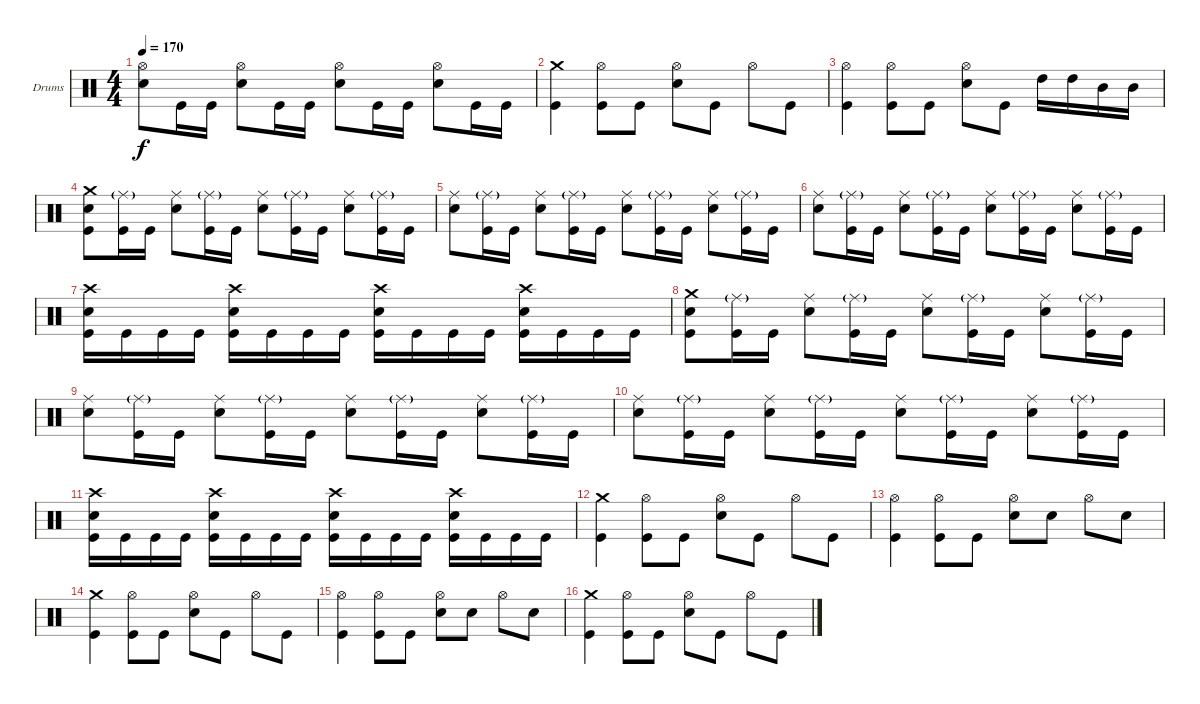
\bracketExtendMode groupsimilarinstruments
\firstSystemTrackNameOrientation horizontal
\otherSystemsTrackNameOrientation horizontal
\track ("Дмитрий Кривенков" "Drums") {instrument percussion}
\staff {score}
\articulation defaults
\ts (4 4)
\tempo 170
\clef neutral
\ks c
("Hi-Hat (open)" "Snare (hit) 2").8{dy f} "Kick (hit)".16 "Kick (hit)".16 ("Hi-Hat (open)" "Snare (hit) 2").8 "Kick (hit)".16 "Kick (hit)".16 ("Hi-Hat (open)" "Snare (hit) 2").8 "Kick (hit)".16 "Kick (hit)".16 ("Hi-Hat (open)" "Snare (hit) 2").8 "Kick (hit)".16 "Kick (hit)".16 |
("Crash medium (hit)" "Kick (hit)").4 ("Hi-Hat (open)" "Kick (hit)").8 "Kick (hit)".8 ("Hi-Hat (open)" "Snare (hit) 2").8 "Kick (hit)".8 "Hi-Hat (open)".8 "Kick (hit)".8 |
("Hi-Hat (open)" "Kick (hit)").4 ("Hi-Hat (open)" "Kick (hit)").8 "Kick (hit)".8 ("Hi-Hat (open)" "Snare (hit) 2").8 "Kick (hit)".8 "High Tom (hit)".16 "High Tom (hit)".16 "Mid Tom (hit)".16 "Mid Tom (hit)".16 |
("Crash medium (hit)" "Snare (hit) 2" "Kick (hit)").8 ("Ride (middle)"{g} "Kick (hit)").16 "Kick (hit)".16 ("Ride (middle)" "Snare (hit) 2").8 ("Ride (middle)"{g} "Kick (hit)").16 "Kick (hit)".16 ("Ride (middle)" "Snare (hit) 2").8 ("Ride (middle)"{g} "Kick (hit)").16 "Kick (hit)".16 ("Ride (middle)" "Snare (hit) 2").8 ("Ride (middle)"{g} "Kick (hit)").16 "Kick (hit)".16 |
("Ride (middle)" "Snare (hit) 2").8 ("Ride (middle)"{g} "Kick (hit)").16 "Kick (hit)".16 ("Ride (middle)" "Snare (hit) 2").8 ("Ride (middle)"{g} "Kick (hit)").16 "Kick (hit)".16 ("Ride (middle)" "Snare (hit) 2").8 ("Ride (middle)"{g} "Kick (hit)").16 "Kick (hit)".16 ("Ride (middle)" "Snare (hit) 2").8 ("Ride (middle)"{g} "Kick (hit)").16 "Kick (hit)".16 |
("Ride (middle)" "Snare (hit) 2").8 ("Ride (middle)"{g} "Kick (hit)").16 "Kick (hit)".16 ("Ride (middle)" "Snare (hit) 2").8 ("Ride (middle)"{g} "Kick (hit)").16 "Kick (hit)".16 ("Ride (middle)" "Snare (hit) 2").8 ("Ride (middle)"{g} "Kick (hit)").16 "Kick (hit)".16 ("Ride (middle)" "Snare (hit) 2").8 ("Ride (middle)"{g} "Kick (hit)").16 "Kick (hit)".16 |
("Crash high (hit)" "Snare (hit) 2" "Kick (hit)").16 "Kick (hit)".16 "Kick (hit)".16 "Kick (hit)".16 ("Crash high (hit)" "Snare (hit) 2" "Kick (hit)").16 "Kick (hit)".16 "Kick (hit)".16 "Kick (hit)".16 ("Crash high (hit)" "Snare (hit) 2" "Kick (hit)").16 "Kick (hit)".16 "Kick (hit)".16 "Kick (hit)".16 ("Crash high (hit)" "Snare (hit) 2" "Kick (hit)").16 "Kick (hit)".16 "Kick (hit)".16 "Kick (hit)".16 |
("Crash medium (hit)" "Snare (hit) 2" "Kick (hit)").8 ("Ride (middle)"{g} "Kick (hit)").16 "Kick (hit)".16 ("Ride (middle)" "Snare (hit) 2").8 ("Ride (middle)"{g} "Kick (hit)").16 "Kick (hit)".16 ("Ride (middle)" "Snare (hit) 2").8 ("Ride (middle)"{g} "Kick (hit)").16 "Kick (hit)".16 ("Ride (middle)" "Snare (hit) 2").8 ("Ride (middle)"{g} "Kick (hit)").16 "Kick (hit)".16 |
("Ride (middle)" "Snare (hit) 2").8 ("Ride (middle)"{g} "Kick (hit)").16 "Kick (hit)".16 ("Ride (middle)" "Snare (hit) 2").8 ("Ride (middle)"{g} "Kick (hit)").16 "Kick (hit)".16 ("Ride (middle)" "Snare (hit) 2").8 ("Ride (middle)"{g} "Kick (hit)").16 "Kick (hit)".16 ("Ride (middle)" "Snare (hit) 2").8 ("Ride (middle)"{g} "Kick (hit)").16 "Kick (hit)".16 |
("Ride (middle)" "Snare (hit) 2").8 ("Ride (middle)"{g} "Kick (hit)").16 "Kick (hit)".16 ("Ride (middle)" "Snare (hit) 2").8 ("Ride (middle)"{g} "Kick (hit)").16 "Kick (hit)".16 ("Ride (middle)" "Snare (hit) 2").8 ("Ride (middle)"{g} "Kick (hit)").16 "Kick (hit)".16 ("Ride (middle)" "Snare (hit) 2").8 ("Ride (middle)"{g} "Kick (hit)").16 "Kick (hit)".16 |
("Crash high (hit)" "Snare (hit) 2" "Kick (hit)").16 "Kick (hit)".16 "Kick (hit)".16 "Kick (hit)".16 ("Crash high (hit)" "Snare (hit) 2" "Kick (hit)").16 "Kick (hit)".16 "Kick (hit)".16 "Kick (hit)".16 ("Crash high (hit)" "Snare (hit) 2" "Kick (hit)").16 "Kick (hit)".16 "Kick (hit)".16 "Kick (hit)".16 ("Crash high (hit)" "Snare (hit) 2" "Kick (hit)").16 "Kick (hit)".16 "Kick (hit)".16 "Kick (hit)".16 |
("Crash medium (hit)" "Kick (hit)").4 ("Hi-Hat (open)" "Kick (hit)").8 "Kick (hit)".8 ("Hi-Hat (open)" "Snare (hit) 2").8 "Kick (hit)".8 "Hi-Hat (open)".8 "Kick (hit)".8 |
("Hi-Hat (open)" "Kick (hit)").4 ("Hi-Hat (open)" "Kick (hit)").8 "Kick (hit)".8 ("Hi-Hat (open)" "Snare (hit) 2").8 "Snare (hit) 2".8 "Hi-Hat (open)".8 "Snare (hit) 2".8 |
("Crash medium (hit)" "Kick (hit)").4 ("Hi-Hat (open)" "Kick (hit)").8 "Kick (hit)".8 ("Hi-Hat (open)" "Snare (hit) 2").8 "Kick (hit)".8 "Hi-Hat (open)".8 "Kick (hit)".8 |
("Hi-Hat (open)" "Kick (hit)").4 ("Hi-Hat (open)" "Kick (hit)").8 "Kick (hit)".8 ("Hi-Hat (open)" "Snare (hit) 2").8 "Snare (hit) 2".8 "Hi-Hat (open)".8 "Snare (hit) 2".8 |
("Crash medium (hit)" "Kick (hit)").4 ("Hi-Hat (open)" "Kick (hit)").8 "Kick (hit)".8 ("Hi-Hat (open)" "Snare (hit) 2").8 "Kick (hit)".8 "Hi-Hat (open)".8 "Kick (hit)".8
